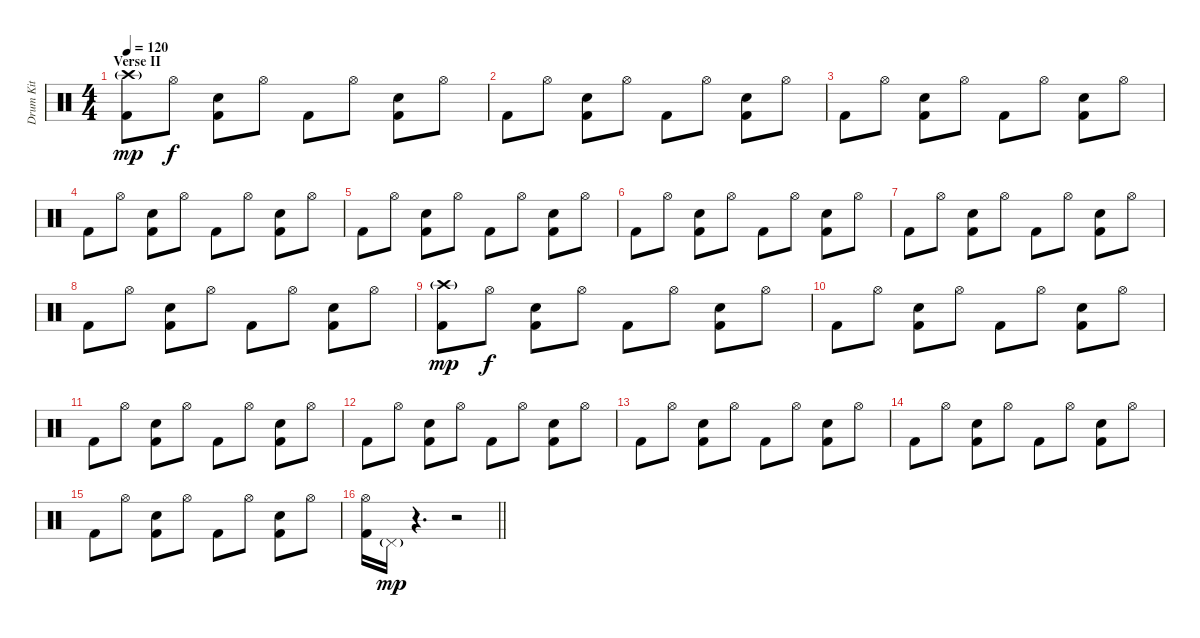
\track ("Drum Kit" "Drum Kit") {instrument percussion}
\staff {score}
\articulation defaults
\ts (4 4)
\section ("" "Verse II")
\tempo 120
\clef neutral
\ks c
("Crash high (hit)"{g} "Kick (hit) 2").8{dy mp} "Hi-Hat (open)".8{dy f} ("Electric Snare (hit)" "Kick (hit) 2").8 "Hi-Hat (open)".8 "Kick (hit) 2".8 "Hi-Hat (open)".8 ("Electric Snare (hit)" "Kick (hit) 2").8 "Hi-Hat (open)".8 |
"Kick (hit) 2".8 "Hi-Hat (open)".8 ("Electric Snare (hit)" "Kick (hit) 2").8 "Hi-Hat (open)".8 "Kick (hit) 2".8 "Hi-Hat (open)".8 ("Electric Snare (hit)" "Kick (hit) 2").8 "Hi-Hat (open)".8 |
"Kick (hit) 2".8 "Hi-Hat (open)".8 ("Electric Snare (hit)" "Kick (hit) 2").8 "Hi-Hat (open)".8 "Kick (hit) 2".8 "Hi-Hat (open)".8 ("Electric Snare (hit)" "Kick (hit) 2").8 "Hi-Hat (open)".8 |
"Kick (hit) 2".8 "Hi-Hat (open)".8 ("Electric Snare (hit)" "Kick (hit) 2").8 "Hi-Hat (open)".8 "Kick (hit) 2".8 "Hi-Hat (open)".8 ("Electric Snare (hit)" "Kick (hit) 2").8 "Hi-Hat (open)".8 |
"Kick (hit) 2".8 "Hi-Hat (open)".8 ("Electric Snare (hit)" "Kick (hit) 2").8 "Hi-Hat (open)".8 "Kick (hit) 2".8 "Hi-Hat (open)".8 ("Electric Snare (hit)" "Kick (hit) 2").8 "Hi-Hat (open)".8 |
"Kick (hit) 2".8 "Hi-Hat (open)".8 ("Electric Snare (hit)" "Kick (hit) 2").8 "Hi-Hat (open)".8 "Kick (hit) 2".8 "Hi-Hat (open)".8 ("Electric Snare (hit)" "Kick (hit) 2").8 "Hi-Hat (open)".8 |
"Kick (hit) 2".8 "Hi-Hat (open)".8 ("Electric Snare (hit)" "Kick (hit) 2").8 "Hi-Hat (open)".8 "Kick (hit) 2".8 "Hi-Hat (open)".8 ("Electric Snare (hit)" "Kick (hit) 2").8 "Hi-Hat (open)".8 |
"Kick (hit) 2".8 "Hi-Hat (open)".8 ("Electric Snare (hit)" "Kick (hit) 2").8 "Hi-Hat (open)".8 "Kick (hit) 2".8 "Hi-Hat (open)".8 ("Electric Snare (hit)" "Kick (hit) 2").8 "Hi-Hat (open)".8 |
("Crash high (hit)"{g} "Kick (hit) 2").8{dy mp} "Hi-Hat (open)".8{dy f} ("Electric Snare (hit)" "Kick (hit) 2").8 "Hi-Hat (open)".8 "Kick (hit) 2".8 "Hi-Hat (open)".8 ("Electric Snare (hit)" "Kick (hit) 2").8 "Hi-Hat (open)".8 |
"Kick (hit) 2".8 "Hi-Hat (open)".8 ("Electric Snare (hit)" "Kick (hit) 2").8 "Hi-Hat (open)".8 "Kick (hit) 2".8 "Hi-Hat (open)".8 ("Electric Snare (hit)" "Kick (hit) 2").8 "Hi-Hat (open)".8 |
"Kick (hit) 2".8 "Hi-Hat (open)".8 ("Electric Snare (hit)" "Kick (hit) 2").8 "Hi-Hat (open)".8 "Kick (hit) 2".8 "Hi-Hat (open)".8 ("Electric Snare (hit)" "Kick (hit) 2").8 "Hi-Hat (open)".8 |
"Kick (hit) 2".8 "Hi-Hat (open)".8 ("Electric Snare (hit)" "Kick (hit) 2").8 "Hi-Hat (open)".8 "Kick (hit) 2".8 "Hi-Hat (open)".8 ("Electric Snare (hit)" "Kick (hit) 2").8 "Hi-Hat (open)".8 |
"Kick (hit) 2".8 "Hi-Hat (open)".8 ("Electric Snare (hit)" "Kick (hit) 2").8 "Hi-Hat (open)".8 "Kick (hit) 2".8 "Hi-Hat (open)".8 ("Electric Snare (hit)" "Kick (hit) 2").8 "Hi-Hat (open)".8 |
"Kick (hit) 2".8 "Hi-Hat (open)".8 ("Electric Snare (hit)" "Kick (hit) 2").8 "Hi-Hat (open)".8 "Kick (hit) 2".8 "Hi-Hat (open)".8 ("Electric Snare (hit)" "Kick (hit) 2").8 "Hi-Hat (open)".8 |
"Kick (hit) 2".8 "Hi-Hat (open)".8 ("Electric Snare (hit)" "Kick (hit) 2").8 "Hi-Hat (open)".8 "Kick (hit) 2".8 "Hi-Hat (open)".8 ("Electric Snare (hit)" "Kick (hit) 2").8 "Hi-Hat (open)".8 |
\barLineRight lightlight
("Hi-Hat (open)" "Kick (hit) 2").16 "Pedal Hi-Hat (hit)"{g}.16{dy mp} r.4{d} r.2
